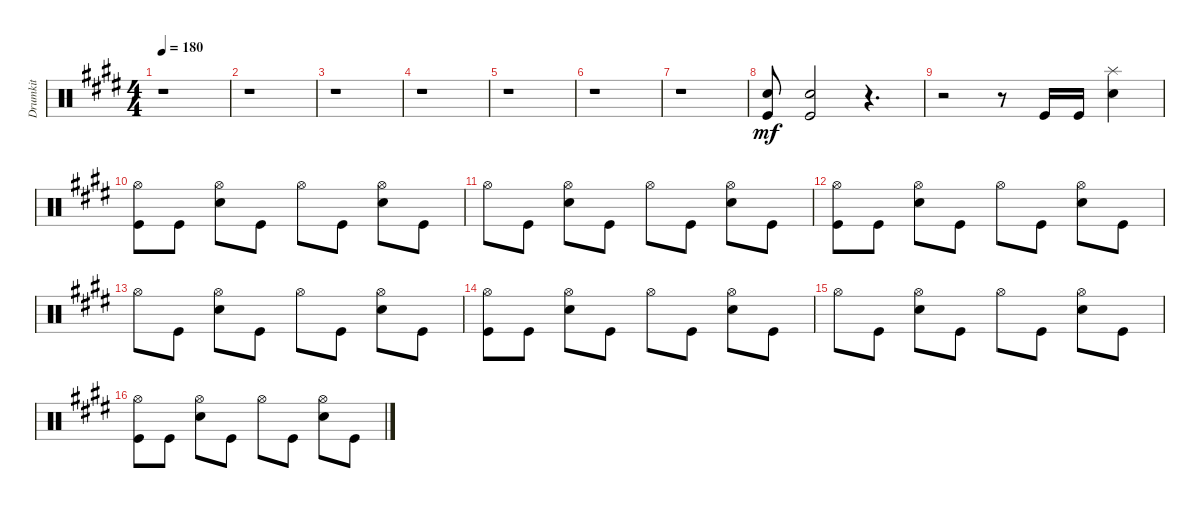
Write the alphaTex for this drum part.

\track ("Drumkit" "Drumkit") {instrument percussion}
\staff {score}
\articulation defaults
\ts (4 4)
\tempo 180
\clef neutral
\ks e
r.1{dy mf} |
r.1 |
r.1 |
r.1 |
r.1 |
r.1 |
r.1 |
("Snare (hit) 2" "Kick (hit)").8 ("Snare (hit) 2" "Kick (hit)").2 r.4{d} |
r.2 r.8 "Kick (hit)".16 "Kick (hit)".16 ("Splash (hit)" "Snare (hit) 2").4 |
("Kick (hit)" "Hi-Hat (open)").8 "Kick (hit)".8 ("Snare (hit) 2" "Hi-Hat (open)").8 "Kick (hit)".8 "Hi-Hat (open)".8 "Kick (hit)".8 ("Snare (hit) 2" "Hi-Hat (open)").8 "Kick (hit)".8 |
"Hi-Hat (open)".8 "Kick (hit)".8 ("Snare (hit) 2" "Hi-Hat (open)").8 "Kick (hit)".8 "Hi-Hat (open)".8 "Kick (hit)".8 ("Snare (hit) 2" "Hi-Hat (open)").8 "Kick (hit)".8 |
("Kick (hit)" "Hi-Hat (open)").8 "Kick (hit)".8 ("Snare (hit) 2" "Hi-Hat (open)").8 "Kick (hit)".8 "Hi-Hat (open)".8 "Kick (hit)".8 ("Snare (hit) 2" "Hi-Hat (open)").8 "Kick (hit)".8 |
"Hi-Hat (open)".8 "Kick (hit)".8 ("Snare (hit) 2" "Hi-Hat (open)").8 "Kick (hit)".8 "Hi-Hat (open)".8 "Kick (hit)".8 ("Snare (hit) 2" "Hi-Hat (open)").8 "Kick (hit)".8 |
("Kick (hit)" "Hi-Hat (open)").8 "Kick (hit)".8 ("Snare (hit) 2" "Hi-Hat (open)").8 "Kick (hit)".8 "Hi-Hat (open)".8 "Kick (hit)".8 ("Snare (hit) 2" "Hi-Hat (open)").8 "Kick (hit)".8 |
"Hi-Hat (open)".8 "Kick (hit)".8 ("Snare (hit) 2" "Hi-Hat (open)").8 "Kick (hit)".8 "Hi-Hat (open)".8 "Kick (hit)".8 ("Snare (hit) 2" "Hi-Hat (open)").8 "Kick (hit)".8 |
("Kick (hit)" "Hi-Hat (open)").8 "Kick (hit)".8 ("Snare (hit) 2" "Hi-Hat (open)").8 "Kick (hit)".8 "Hi-Hat (open)".8 "Kick (hit)".8 ("Snare (hit) 2" "Hi-Hat (open)").8 "Kick (hit)".8
